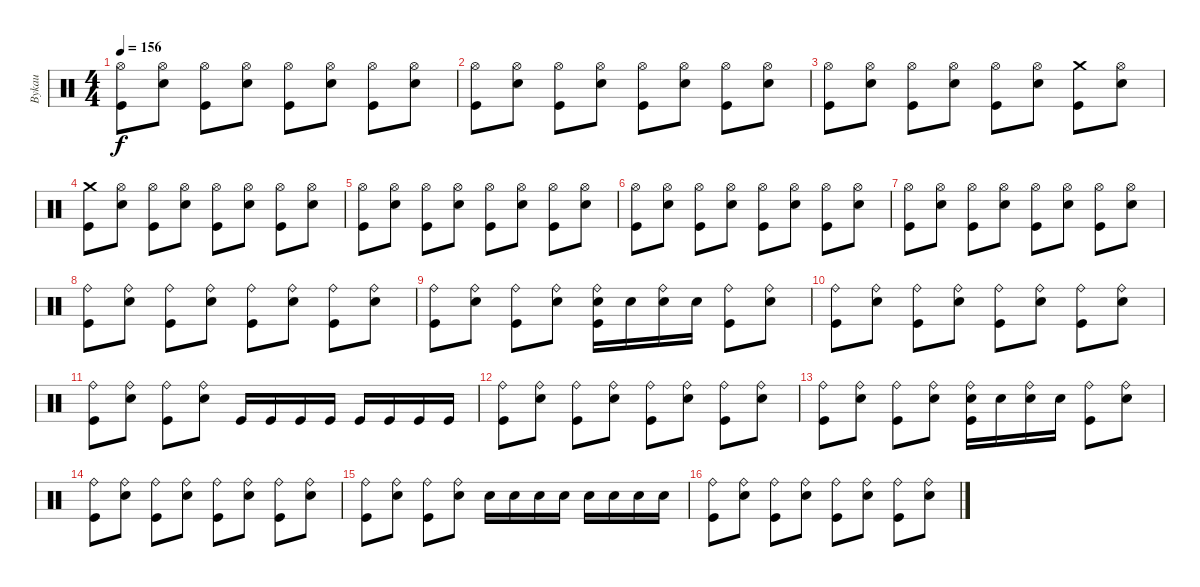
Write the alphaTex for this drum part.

\track ("Bykau" "Bykau") {instrument percussion}
\staff {score}
\articulation defaults
\ts (4 4)
\tempo 156
\clef neutral
\ks c
("Hi-Hat (open)" "Kick (hit)").8{dy f} ("Hi-Hat (open)" "Electric Snare (hit)").8 ("Hi-Hat (open)" "Kick (hit)").8 ("Hi-Hat (open)" "Electric Snare (hit)").8 ("Hi-Hat (open)" "Kick (hit)").8 ("Hi-Hat (open)" "Electric Snare (hit)").8 ("Hi-Hat (open)" "Kick (hit)").8 ("Hi-Hat (open)" "Electric Snare (hit)").8 |
("Hi-Hat (open)" "Kick (hit)").8 ("Hi-Hat (open)" "Electric Snare (hit)").8 ("Hi-Hat (open)" "Kick (hit)").8 ("Hi-Hat (open)" "Electric Snare (hit)").8 ("Hi-Hat (open)" "Kick (hit)").8 ("Hi-Hat (open)" "Electric Snare (hit)").8 ("Hi-Hat (open)" "Kick (hit)").8 ("Hi-Hat (open)" "Electric Snare (hit)").8 |
("Hi-Hat (open)" "Kick (hit)").8 ("Hi-Hat (open)" "Electric Snare (hit)").8 ("Hi-Hat (open)" "Kick (hit)").8 ("Hi-Hat (open)" "Electric Snare (hit)").8 ("Hi-Hat (open)" "Kick (hit)").8 ("Hi-Hat (open)" "Electric Snare (hit)").8 ("Crash medium (hit)" "Kick (hit)").8 ("Hi-Hat (open)" "Electric Snare (hit)").8 |
("Crash medium (hit)" "Kick (hit)").8 ("Hi-Hat (open)" "Electric Snare (hit)").8 ("Hi-Hat (open)" "Kick (hit)").8 ("Hi-Hat (open)" "Electric Snare (hit)").8 ("Hi-Hat (open)" "Kick (hit)").8 ("Hi-Hat (open)" "Electric Snare (hit)").8 ("Hi-Hat (open)" "Kick (hit)").8 ("Hi-Hat (open)" "Electric Snare (hit)").8 |
("Hi-Hat (open)" "Kick (hit)").8 ("Hi-Hat (open)" "Electric Snare (hit)").8 ("Hi-Hat (open)" "Kick (hit)").8 ("Hi-Hat (open)" "Electric Snare (hit)").8 ("Hi-Hat (open)" "Kick (hit)").8 ("Hi-Hat (open)" "Electric Snare (hit)").8 ("Hi-Hat (open)" "Kick (hit)").8 ("Hi-Hat (open)" "Electric Snare (hit)").8 |
("Hi-Hat (open)" "Kick (hit)").8 ("Hi-Hat (open)" "Electric Snare (hit)").8 ("Hi-Hat (open)" "Kick (hit)").8 ("Hi-Hat (open)" "Electric Snare (hit)").8 ("Hi-Hat (open)" "Kick (hit)").8 ("Hi-Hat (open)" "Electric Snare (hit)").8 ("Hi-Hat (open)" "Kick (hit)").8 ("Hi-Hat (open)" "Electric Snare (hit)").8 |
("Hi-Hat (open)" "Kick (hit)").8 ("Hi-Hat (open)" "Electric Snare (hit)").8 ("Hi-Hat (open)" "Kick (hit)").8 ("Hi-Hat (open)" "Electric Snare (hit)").8 ("Hi-Hat (open)" "Kick (hit)").8 ("Hi-Hat (open)" "Electric Snare (hit)").8 ("Hi-Hat (open)" "Kick (hit)").8 ("Hi-Hat (open)" "Electric Snare (hit)").8 |
("Ride (bell)" "Kick (hit)").8 ("Ride (bell)" "Electric Snare (hit)").8 ("Ride (bell)" "Kick (hit)").8 ("Ride (bell)" "Electric Snare (hit)").8 ("Ride (bell)" "Kick (hit)").8 ("Ride (bell)" "Electric Snare (hit)").8 ("Ride (bell)" "Kick (hit)").8 ("Ride (bell)" "Electric Snare (hit)").8 |
("Ride (bell)" "Kick (hit)").8 ("Ride (bell)" "Electric Snare (hit)").8 ("Ride (bell)" "Kick (hit)").8 ("Ride (bell)" "Electric Snare (hit)").8 ("Ride (bell)" "Electric Snare (hit)" "Kick (hit)").16 "Electric Snare (hit)".16 ("Ride (bell)" "Electric Snare (hit)").16 "Electric Snare (hit)".16 ("Ride (bell)" "Kick (hit)").8 ("Ride (bell)" "Electric Snare (hit)").8 |
("Ride (bell)" "Kick (hit)").8 ("Ride (bell)" "Electric Snare (hit)").8 ("Ride (bell)" "Kick (hit)").8 ("Ride (bell)" "Electric Snare (hit)").8 ("Ride (bell)" "Kick (hit)").8 ("Ride (bell)" "Electric Snare (hit)").8 ("Ride (bell)" "Kick (hit)").8 ("Ride (bell)" "Electric Snare (hit)").8 |
("Ride (bell)" "Kick (hit)").8 ("Ride (bell)" "Electric Snare (hit)").8 ("Ride (bell)" "Kick (hit)").8 ("Ride (bell)" "Electric Snare (hit)").8 "Kick (hit)".16 "Kick (hit)".16 "Kick (hit)".16 "Kick (hit)".16 "Kick (hit)".16 "Kick (hit)".16 "Kick (hit)".16 "Kick (hit)".16 |
("Ride (bell)" "Kick (hit)").8 ("Ride (bell)" "Electric Snare (hit)").8 ("Ride (bell)" "Kick (hit)").8 ("Ride (bell)" "Electric Snare (hit)").8 ("Ride (bell)" "Kick (hit)").8 ("Ride (bell)" "Electric Snare (hit)").8 ("Ride (bell)" "Kick (hit)").8 ("Ride (bell)" "Electric Snare (hit)").8 |
("Ride (bell)" "Kick (hit)").8 ("Ride (bell)" "Electric Snare (hit)").8 ("Ride (bell)" "Kick (hit)").8 ("Ride (bell)" "Electric Snare (hit)").8 ("Ride (bell)" "Electric Snare (hit)" "Kick (hit)").16 "Electric Snare (hit)".16 ("Ride (bell)" "Electric Snare (hit)").16 "Electric Snare (hit)".16 ("Ride (bell)" "Kick (hit)").8 ("Ride (bell)" "Electric Snare (hit)").8 |
("Ride (bell)" "Kick (hit)").8 ("Ride (bell)" "Electric Snare (hit)").8 ("Ride (bell)" "Kick (hit)").8 ("Ride (bell)" "Electric Snare (hit)").8 ("Ride (bell)" "Kick (hit)").8 ("Ride (bell)" "Electric Snare (hit)").8 ("Ride (bell)" "Kick (hit)").8 ("Ride (bell)" "Electric Snare (hit)").8 |
("Ride (bell)" "Kick (hit)").8 ("Ride (bell)" "Electric Snare (hit)").8 ("Ride (bell)" "Kick (hit)").8 ("Ride (bell)" "Electric Snare (hit)").8 "Electric Snare (hit)".16 "Electric Snare (hit)".16 "Electric Snare (hit)".16 "Electric Snare (hit)".16 "Electric Snare (hit)".16 "Electric Snare (hit)".16 "Electric Snare (hit)".16 "Electric Snare (hit)".16 |
("Ride (bell)" "Kick (hit)").8 ("Ride (bell)" "Electric Snare (hit)").8 ("Ride (bell)" "Kick (hit)").8 ("Ride (bell)" "Electric Snare (hit)").8 ("Ride (bell)" "Kick (hit)").8 ("Ride (bell)" "Electric Snare (hit)").8 ("Ride (bell)" "Kick (hit)").8 ("Ride (bell)" "Electric Snare (hit)").8
